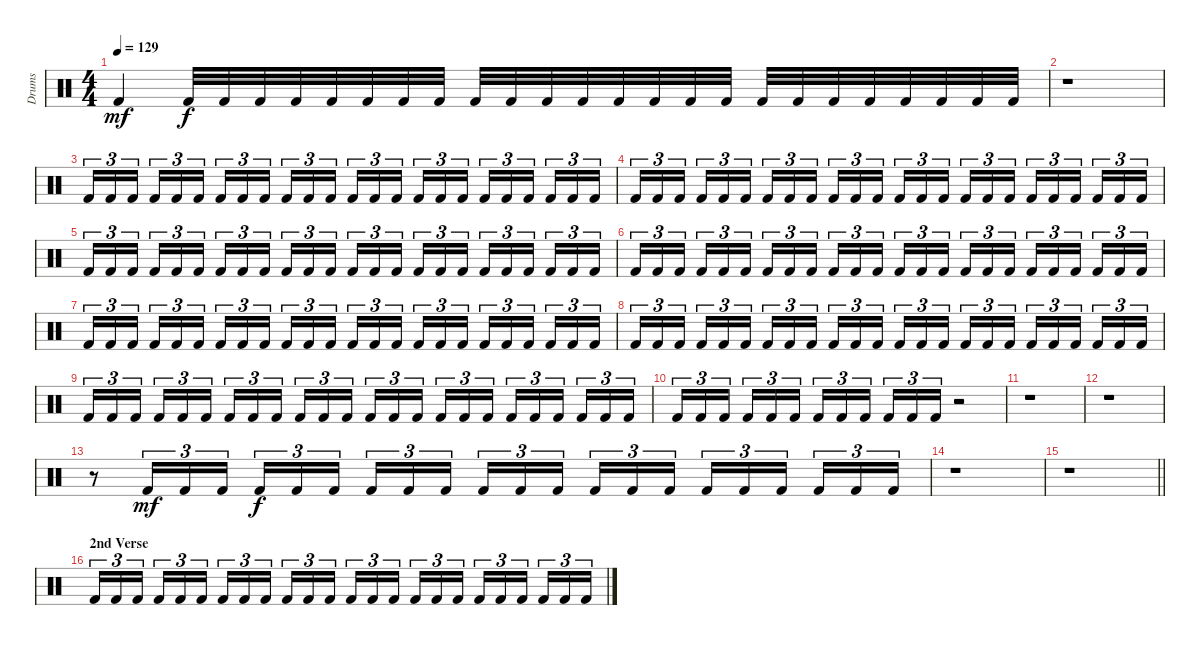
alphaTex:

\track ("Drums" "Drums") {instrument percussion}
\staff {score}
\articulation defaults
\ts (4 4)
\tempo 129
\clef neutral
\ks c "Kick (hit) 2".4{dy mf} "Kick (hit) 2".32{dy f} "Kick (hit) 2".32 "Kick (hit) 2".32 "Kick (hit) 2".32 "Kick (hit) 2".32 "Kick (hit) 2".32 "Kick (hit) 2".32 "Kick (hit) 2".32 "Kick (hit) 2".32 "Kick (hit) 2".32 "Kick (hit) 2".32 "Kick (hit) 2".32 "Kick (hit) 2".32 "Kick (hit) 2".32 "Kick (hit) 2".32 "Kick (hit) 2".32 "Kick (hit) 2".32 "Kick (hit) 2".32 "Kick (hit) 2".32 "Kick (hit) 2".32 "Kick (hit) 2".32 "Kick (hit) 2".32 "Kick (hit) 2".32 "Kick (hit) 2".32
|
r.1 |
"Kick (hit) 2".16{tu (3 2)} "Kick (hit) 2".16{tu (3 2)} "Kick (hit) 2".16{tu (3 2) beam splitsecondary} "Kick (hit) 2".16{tu (3 2)} "Kick (hit) 2".16{tu (3 2)} "Kick (hit) 2".16{tu (3 2)} "Kick (hit) 2".16{tu (3 2)} "Kick (hit) 2".16{tu (3 2)} "Kick (hit) 2".16{tu (3 2) beam splitsecondary} "Kick (hit) 2".16{tu (3 2)} "Kick (hit) 2".16{tu (3 2)} "Kick (hit) 2".16{tu (3 2)} "Kick (hit) 2".16{tu (3 2)} "Kick (hit) 2".16{tu (3 2)} "Kick (hit) 2".16{tu (3 2) beam splitsecondary} "Kick (hit) 2".16{tu (3 2)} "Kick (hit) 2".16{tu (3 2)} "Kick (hit) 2".16{tu (3 2)} "Kick (hit) 2".16{tu (3 2)} "Kick (hit) 2".16{tu (3 2)} "Kick (hit) 2".16{tu (3 2) beam splitsecondary} "Kick (hit) 2".16{tu (3 2)} "Kick (hit) 2".16{tu (3 2)} "Kick (hit) 2".16{tu (3 2)} |
"Kick (hit) 2".16{tu (3 2)} "Kick (hit) 2".16{tu (3 2)} "Kick (hit) 2".16{tu (3 2) beam splitsecondary} "Kick (hit) 2".16{tu (3 2)} "Kick (hit) 2".16{tu (3 2)} "Kick (hit) 2".16{tu (3 2)} "Kick (hit) 2".16{tu (3 2)} "Kick (hit) 2".16{tu (3 2)} "Kick (hit) 2".16{tu (3 2) beam splitsecondary} "Kick (hit) 2".16{tu (3 2)} "Kick (hit) 2".16{tu (3 2)} "Kick (hit) 2".16{tu (3 2)} "Kick (hit) 2".16{tu (3 2)} "Kick (hit) 2".16{tu (3 2)} "Kick (hit) 2".16{tu (3 2) beam splitsecondary} "Kick (hit) 2".16{tu (3 2)} "Kick (hit) 2".16{tu (3 2)} "Kick (hit) 2".16{tu (3 2)} "Kick (hit) 2".16{tu (3 2)} "Kick (hit) 2".16{tu (3 2)} "Kick (hit) 2".16{tu (3 2) beam splitsecondary} "Kick (hit) 2".16{tu (3 2)} "Kick (hit) 2".16{tu (3 2)} "Kick (hit) 2".16{tu (3 2)} |
"Kick (hit) 2".16{tu (3 2)} "Kick (hit) 2".16{tu (3 2)} "Kick (hit) 2".16{tu (3 2) beam splitsecondary} "Kick (hit) 2".16{tu (3 2)} "Kick (hit) 2".16{tu (3 2)} "Kick (hit) 2".16{tu (3 2)} "Kick (hit) 2".16{tu (3 2)} "Kick (hit) 2".16{tu (3 2)} "Kick (hit) 2".16{tu (3 2) beam splitsecondary} "Kick (hit) 2".16{tu (3 2)} "Kick (hit) 2".16{tu (3 2)} "Kick (hit) 2".16{tu (3 2)} "Kick (hit) 2".16{tu (3 2)} "Kick (hit) 2".16{tu (3 2)} "Kick (hit) 2".16{tu (3 2) beam splitsecondary} "Kick (hit) 2".16{tu (3 2)} "Kick (hit) 2".16{tu (3 2)} "Kick (hit) 2".16{tu (3 2)} "Kick (hit) 2".16{tu (3 2)} "Kick (hit) 2".16{tu (3 2)} "Kick (hit) 2".16{tu (3 2) beam splitsecondary} "Kick (hit) 2".16{tu (3 2)} "Kick (hit) 2".16{tu (3 2)} "Kick (hit) 2".16{tu (3 2)} |
"Kick (hit) 2".16{tu (3 2)} "Kick (hit) 2".16{tu (3 2)} "Kick (hit) 2".16{tu (3 2) beam splitsecondary} "Kick (hit) 2".16{tu (3 2)} "Kick (hit) 2".16{tu (3 2)} "Kick (hit) 2".16{tu (3 2)} "Kick (hit) 2".16{tu (3 2)} "Kick (hit) 2".16{tu (3 2)} "Kick (hit) 2".16{tu (3 2) beam splitsecondary} "Kick (hit) 2".16{tu (3 2)} "Kick (hit) 2".16{tu (3 2)} "Kick (hit) 2".16{tu (3 2)} "Kick (hit) 2".16{tu (3 2)} "Kick (hit) 2".16{tu (3 2)} "Kick (hit) 2".16{tu (3 2) beam splitsecondary} "Kick (hit) 2".16{tu (3 2)} "Kick (hit) 2".16{tu (3 2)} "Kick (hit) 2".16{tu (3 2)} "Kick (hit) 2".16{tu (3 2)} "Kick (hit) 2".16{tu (3 2)} "Kick (hit) 2".16{tu (3 2) beam splitsecondary} "Kick (hit) 2".16{tu (3 2)} "Kick (hit) 2".16{tu (3 2)} "Kick (hit) 2".16{tu (3 2)} |
"Kick (hit) 2".16{tu (3 2)} "Kick (hit) 2".16{tu (3 2)} "Kick (hit) 2".16{tu (3 2) beam splitsecondary} "Kick (hit) 2".16{tu (3 2)} "Kick (hit) 2".16{tu (3 2)} "Kick (hit) 2".16{tu (3 2)} "Kick (hit) 2".16{tu (3 2)} "Kick (hit) 2".16{tu (3 2)} "Kick (hit) 2".16{tu (3 2) beam splitsecondary} "Kick (hit) 2".16{tu (3 2)} "Kick (hit) 2".16{tu (3 2)} "Kick (hit) 2".16{tu (3 2)} "Kick (hit) 2".16{tu (3 2)} "Kick (hit) 2".16{tu (3 2)} "Kick (hit) 2".16{tu (3 2) beam splitsecondary} "Kick (hit) 2".16{tu (3 2)} "Kick (hit) 2".16{tu (3 2)} "Kick (hit) 2".16{tu (3 2)} "Kick (hit) 2".16{tu (3 2)} "Kick (hit) 2".16{tu (3 2)} "Kick (hit) 2".16{tu (3 2) beam splitsecondary} "Kick (hit) 2".16{tu (3 2)} "Kick (hit) 2".16{tu (3 2)} "Kick (hit) 2".16{tu (3 2)} |
"Kick (hit) 2".16{tu (3 2)} "Kick (hit) 2".16{tu (3 2)} "Kick (hit) 2".16{tu (3 2) beam splitsecondary} "Kick (hit) 2".16{tu (3 2)} "Kick (hit) 2".16{tu (3 2)} "Kick (hit) 2".16{tu (3 2)} "Kick (hit) 2".16{tu (3 2)} "Kick (hit) 2".16{tu (3 2)} "Kick (hit) 2".16{tu (3 2) beam splitsecondary} "Kick (hit) 2".16{tu (3 2)} "Kick (hit) 2".16{tu (3 2)} "Kick (hit) 2".16{tu (3 2)} "Kick (hit) 2".16{tu (3 2)} "Kick (hit) 2".16{tu (3 2)} "Kick (hit) 2".16{tu (3 2) beam splitsecondary} "Kick (hit) 2".16{tu (3 2)} "Kick (hit) 2".16{tu (3 2)} "Kick (hit) 2".16{tu (3 2)} "Kick (hit) 2".16{tu (3 2)} "Kick (hit) 2".16{tu (3 2)} "Kick (hit) 2".16{tu (3 2) beam splitsecondary} "Kick (hit) 2".16{tu (3 2)} "Kick (hit) 2".16{tu (3 2)} "Kick (hit) 2".16{tu (3 2)} |
"Kick (hit) 2".16{tu (3 2)} "Kick (hit) 2".16{tu (3 2)} "Kick (hit) 2".16{tu (3 2) beam splitsecondary} "Kick (hit) 2".16{tu (3 2)} "Kick (hit) 2".16{tu (3 2)} "Kick (hit) 2".16{tu (3 2)} "Kick (hit) 2".16{tu (3 2)} "Kick (hit) 2".16{tu (3 2)} "Kick (hit) 2".16{tu (3 2) beam splitsecondary} "Kick (hit) 2".16{tu (3 2)} "Kick (hit) 2".16{tu (3 2)} "Kick (hit) 2".16{tu (3 2)} "Kick (hit) 2".16{tu (3 2)} "Kick (hit) 2".16{tu (3 2)} "Kick (hit) 2".16{tu (3 2) beam splitsecondary} "Kick (hit) 2".16{tu (3 2)} "Kick (hit) 2".16{tu (3 2)} "Kick (hit) 2".16{tu (3 2)} "Kick (hit) 2".16{tu (3 2)} "Kick (hit) 2".16{tu (3 2)} "Kick (hit) 2".16{tu (3 2) beam splitsecondary} "Kick (hit) 2".16{tu (3 2)} "Kick (hit) 2".16{tu (3 2)} "Kick (hit) 2".16{tu (3 2)} |
"Kick (hit) 2".16{tu (3 2)} "Kick (hit) 2".16{tu (3 2)} "Kick (hit) 2".16{tu (3 2) beam splitsecondary} "Kick (hit) 2".16{tu (3 2)} "Kick (hit) 2".16{tu (3 2)} "Kick (hit) 2".16{tu (3 2)} "Kick (hit) 2".16{tu (3 2)} "Kick (hit) 2".16{tu (3 2)} "Kick (hit) 2".16{tu (3 2) beam splitsecondary} "Kick (hit) 2".16{tu (3 2)} "Kick (hit) 2".16{tu (3 2)} "Kick (hit) 2".16{tu (3 2)} r.2 |
r.1 |
r.1 |
r.8 "Kick (hit) 2".16{tu (3 2) dy mf} "Kick (hit) 2".16{tu (3 2)} "Kick (hit) 2".16{tu (3 2)} "Kick (hit) 2".16{tu (3 2) dy f} "Kick (hit) 2".16{tu (3 2)} "Kick (hit) 2".16{tu (3 2) beam splitsecondary} "Kick (hit) 2".16{tu (3 2)} "Kick (hit) 2".16{tu (3 2)} "Kick (hit) 2".16{tu (3 2)} "Kick (hit) 2".16{tu (3 2)} "Kick (hit) 2".16{tu (3 2)} "Kick (hit) 2".16{tu (3 2) beam splitsecondary} "Kick (hit) 2".16{tu (3 2)} "Kick (hit) 2".16{tu (3 2)} "Kick (hit) 2".16{tu (3 2)} "Kick (hit) 2".16{tu (3 2)} "Kick (hit) 2".16{tu (3 2)} "Kick (hit) 2".16{tu (3 2) beam splitsecondary} "Kick (hit) 2".16{tu (3 2)} "Kick (hit) 2".16{tu (3 2)} "Kick (hit) 2".16{tu (3 2)} |
r.1 |
\barLineRight lightlight
r.1 |
\section ("" "2nd Verse")
"Kick (hit) 2".16{tu (3 2)} "Kick (hit) 2".16{tu (3 2)} "Kick (hit) 2".16{tu (3 2) beam splitsecondary} "Kick (hit) 2".16{tu (3 2)} "Kick (hit) 2".16{tu (3 2)} "Kick (hit) 2".16{tu (3 2)} "Kick (hit) 2".16{tu (3 2)} "Kick (hit) 2".16{tu (3 2)} "Kick (hit) 2".16{tu (3 2) beam splitsecondary} "Kick (hit) 2".16{tu (3 2)} "Kick (hit) 2".16{tu (3 2)} "Kick (hit) 2".16{tu (3 2)} "Kick (hit) 2".16{tu (3 2)} "Kick (hit) 2".16{tu (3 2)} "Kick (hit) 2".16{tu (3 2) beam splitsecondary} "Kick (hit) 2".16{tu (3 2)} "Kick (hit) 2".16{tu (3 2)} "Kick (hit) 2".16{tu (3 2)} "Kick (hit) 2".16{tu (3 2)} "Kick (hit) 2".16{tu (3 2)} "Kick (hit) 2".16{tu (3 2) beam splitsecondary} "Kick (hit) 2".16{tu (3 2)} "Kick (hit) 2".16{tu (3 2)} "Kick (hit) 2".16{tu (3 2)}
